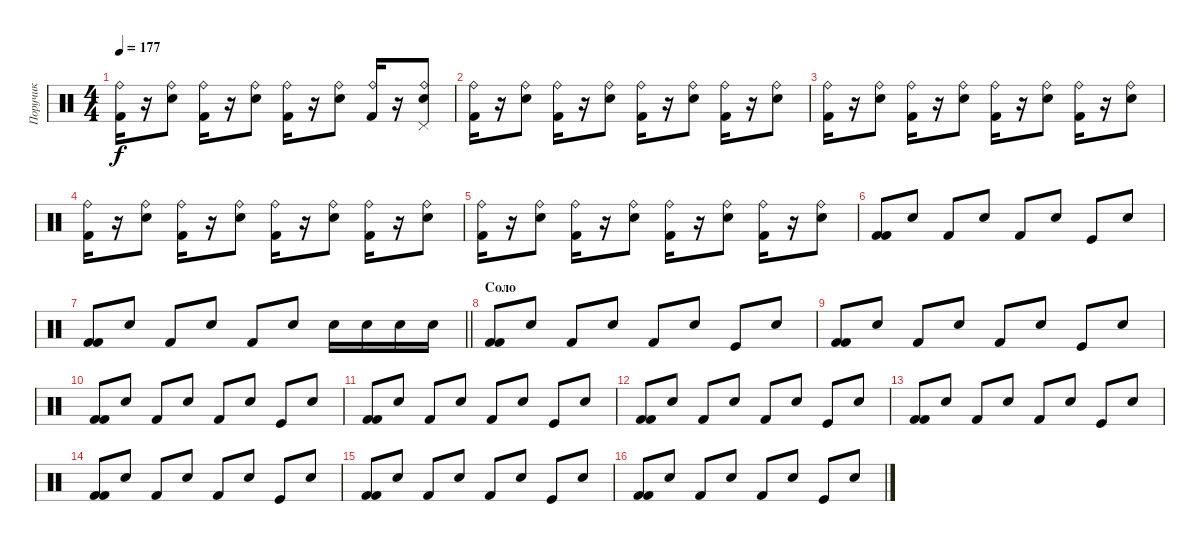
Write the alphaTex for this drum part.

\track ("Поручик" "Поручик") {instrument percussion}
\staff {score}
\articulation defaults
\ts (4 4)
\tempo 177
\clef neutral
\ks c
("Ride (bell)" "Kick (hit) 2").16{dy f} r.16 ("Ride (bell)" "Snare (hit) 2").8 ("Ride (bell)" "Kick (hit) 2").16 r.16 ("Ride (bell)" "Snare (hit) 2").8 ("Ride (bell)" "Kick (hit) 2").16 r.16 ("Ride (bell)" "Snare (hit) 2").8 ("Ride (bell)" "Kick (hit) 2").16 r.16 ("Ride (bell)" "Snare (hit) 2" "Pedal Hi-Hat (hit)").8 |
("Ride (bell)" "Kick (hit) 2").16 r.16 ("Ride (bell)" "Snare (hit) 2").8 ("Ride (bell)" "Kick (hit) 2").16 r.16 ("Ride (bell)" "Snare (hit) 2").8 ("Ride (bell)" "Kick (hit) 2").16 r.16 ("Ride (bell)" "Snare (hit) 2").8 ("Ride (bell)" "Kick (hit) 2").16 r.16 ("Ride (bell)" "Snare (hit) 2").8 |
("Ride (bell)" "Kick (hit) 2").16 r.16 ("Ride (bell)" "Snare (hit) 2").8 ("Ride (bell)" "Kick (hit) 2").16 r.16 ("Ride (bell)" "Snare (hit) 2").8 ("Ride (bell)" "Kick (hit) 2").16 r.16 ("Ride (bell)" "Snare (hit) 2").8 ("Ride (bell)" "Kick (hit) 2").16 r.16 ("Ride (bell)" "Snare (hit) 2").8 |
("Ride (bell)" "Kick (hit) 2").16 r.16 ("Ride (bell)" "Snare (hit) 2").8 ("Ride (bell)" "Kick (hit) 2").16 r.16 ("Ride (bell)" "Snare (hit) 2").8 ("Ride (bell)" "Kick (hit) 2").16 r.16 ("Ride (bell)" "Snare (hit) 2").8 ("Ride (bell)" "Kick (hit) 2").16 r.16 ("Ride (bell)" "Snare (hit) 2").8 |
("Ride (bell)" "Kick (hit) 2").16 r.16 ("Ride (bell)" "Snare (hit) 2").8 ("Ride (bell)" "Kick (hit) 2").16 r.16 ("Ride (bell)" "Snare (hit) 2").8 ("Ride (bell)" "Kick (hit) 2").16 r.16 ("Ride (bell)" "Snare (hit) 2").8 ("Ride (bell)" "Kick (hit) 2").16 r.16 ("Ride (bell)" "Snare (hit) 2").8 |
("Kick (hit) 2" "Kick (hit) 2").8 "Snare (hit) 2".8 "Kick (hit) 2".8 "Snare (hit) 2".8 "Kick (hit) 2".8 "Snare (hit) 2".8 "Kick (hit)".8 "Snare (hit) 2".8 |
\barLineRight lightlight
("Kick (hit) 2" "Kick (hit) 2").8 "Snare (hit) 2".8 "Kick (hit) 2".8 "Snare (hit) 2".8 "Kick (hit) 2".8 "Snare (hit) 2".8 "Snare (hit) 2".16 "Snare (hit) 2".16 "Snare (hit) 2".16 "Snare (hit) 2".16 |
\section ("" "Соло")
("Kick (hit) 2" "Kick (hit) 2").8 "Snare (hit) 2".8 "Kick (hit) 2".8 "Snare (hit) 2".8 "Kick (hit) 2".8 "Snare (hit) 2".8 "Kick (hit)".8 "Snare (hit) 2".8 |
("Kick (hit) 2" "Kick (hit) 2").8 "Snare (hit) 2".8 "Kick (hit) 2".8 "Snare (hit) 2".8 "Kick (hit) 2".8 "Snare (hit) 2".8 "Kick (hit)".8 "Snare (hit) 2".8 |
("Kick (hit) 2" "Kick (hit) 2").8 "Snare (hit) 2".8 "Kick (hit) 2".8 "Snare (hit) 2".8 "Kick (hit) 2".8 "Snare (hit) 2".8 "Kick (hit)".8 "Snare (hit) 2".8 |
("Kick (hit) 2" "Kick (hit) 2").8 "Snare (hit) 2".8 "Kick (hit) 2".8 "Snare (hit) 2".8 "Kick (hit) 2".8 "Snare (hit) 2".8 "Kick (hit)".8 "Snare (hit) 2".8 |
("Kick (hit) 2" "Kick (hit) 2").8 "Snare (hit) 2".8 "Kick (hit) 2".8 "Snare (hit) 2".8 "Kick (hit) 2".8 "Snare (hit) 2".8 "Kick (hit)".8 "Snare (hit) 2".8 |
("Kick (hit) 2" "Kick (hit) 2").8 "Snare (hit) 2".8 "Kick (hit) 2".8 "Snare (hit) 2".8 "Kick (hit) 2".8 "Snare (hit) 2".8 "Kick (hit)".8 "Snare (hit) 2".8 |
("Kick (hit) 2" "Kick (hit) 2").8 "Snare (hit) 2".8 "Kick (hit) 2".8 "Snare (hit) 2".8 "Kick (hit) 2".8 "Snare (hit) 2".8 "Kick (hit)".8 "Snare (hit) 2".8 |
("Kick (hit) 2" "Kick (hit) 2").8 "Snare (hit) 2".8 "Kick (hit) 2".8 "Snare (hit) 2".8 "Kick (hit) 2".8 "Snare (hit) 2".8 "Kick (hit)".8 "Snare (hit) 2".8 |
("Kick (hit) 2" "Kick (hit) 2").8 "Snare (hit) 2".8 "Kick (hit) 2".8 "Snare (hit) 2".8 "Kick (hit) 2".8 "Snare (hit) 2".8 "Kick (hit)".8 "Snare (hit) 2".8
